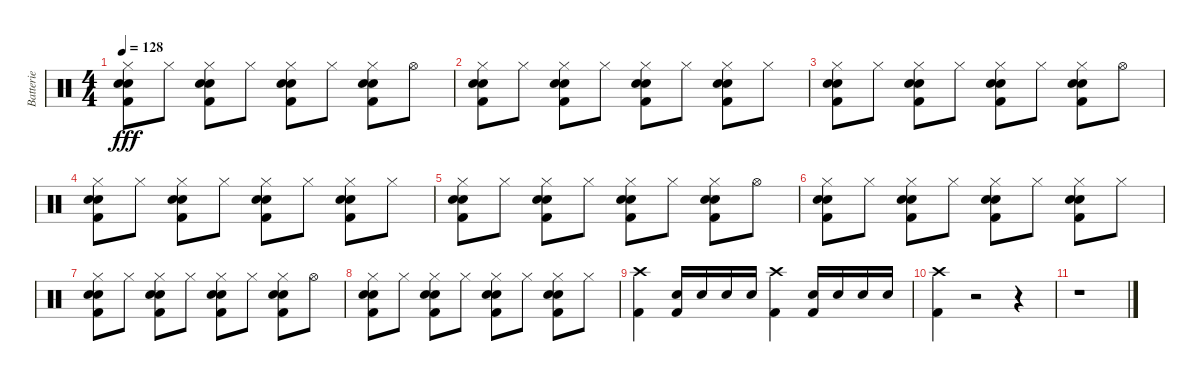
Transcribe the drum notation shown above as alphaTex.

\track ("Batterie" "Batterie") {instrument percussion}
\staff {score}
\articulation defaults
\ts (4 4)
\tempo 128
\clef neutral
\ks c
("Snare (hit) 2" "Kick (hit) 2" "Hi-Hat (closed)" "Electric Snare (hit)").8{dy fff} "Hi-Hat (closed)".8 ("Snare (hit) 2" "Kick (hit) 2" "Hi-Hat (closed)" "Electric Snare (hit)").8 "Hi-Hat (closed)".8 ("Kick (hit) 2" "Snare (hit) 2" "Hi-Hat (closed)" "Electric Snare (hit)").8 "Hi-Hat (closed)".8 ("Kick (hit) 2" "Snare (hit) 2" "Hi-Hat (closed)" "Electric Snare (hit)").8 "Hi-Hat (open)".8 |
("Snare (hit) 2" "Kick (hit) 2" "Hi-Hat (closed)" "Electric Snare (hit)").8 "Hi-Hat (closed)".8 ("Kick (hit) 2" "Snare (hit) 2" "Hi-Hat (closed)" "Electric Snare (hit)").8 "Hi-Hat (closed)".8 ("Snare (hit) 2" "Kick (hit) 2" "Hi-Hat (closed)" "Electric Snare (hit)").8 "Hi-Hat (closed)".8 ("Snare (hit) 2" "Kick (hit) 2" "Hi-Hat (closed)" "Electric Snare (hit)").8 "Hi-Hat (closed)".8 |
("Snare (hit) 2" "Kick (hit) 2" "Hi-Hat (closed)" "Electric Snare (hit)").8 "Hi-Hat (closed)".8 ("Snare (hit) 2" "Kick (hit) 2" "Hi-Hat (closed)" "Electric Snare (hit)").8 "Hi-Hat (closed)".8 ("Kick (hit) 2" "Snare (hit) 2" "Hi-Hat (closed)" "Electric Snare (hit)").8 "Hi-Hat (closed)".8 ("Kick (hit) 2" "Snare (hit) 2" "Hi-Hat (closed)" "Electric Snare (hit)").8 "Hi-Hat (open)".8 |
("Snare (hit) 2" "Kick (hit) 2" "Hi-Hat (closed)" "Electric Snare (hit)").8 "Hi-Hat (closed)".8 ("Kick (hit) 2" "Snare (hit) 2" "Hi-Hat (closed)" "Electric Snare (hit)").8 "Hi-Hat (closed)".8 ("Snare (hit) 2" "Kick (hit) 2" "Hi-Hat (closed)" "Electric Snare (hit)").8 "Hi-Hat (closed)".8 ("Snare (hit) 2" "Kick (hit) 2" "Hi-Hat (closed)" "Electric Snare (hit)").8 "Hi-Hat (closed)".8 |
("Snare (hit) 2" "Kick (hit) 2" "Hi-Hat (closed)" "Electric Snare (hit)").8 "Hi-Hat (closed)".8 ("Snare (hit) 2" "Kick (hit) 2" "Hi-Hat (closed)" "Electric Snare (hit)").8 "Hi-Hat (closed)".8 ("Kick (hit) 2" "Snare (hit) 2" "Hi-Hat (closed)" "Electric Snare (hit)").8 "Hi-Hat (closed)".8 ("Kick (hit) 2" "Snare (hit) 2" "Hi-Hat (closed)" "Electric Snare (hit)").8 "Hi-Hat (open)".8 |
("Snare (hit) 2" "Kick (hit) 2" "Hi-Hat (closed)" "Electric Snare (hit)").8 "Hi-Hat (closed)".8 ("Kick (hit) 2" "Snare (hit) 2" "Hi-Hat (closed)" "Electric Snare (hit)").8 "Hi-Hat (closed)".8 ("Snare (hit) 2" "Kick (hit) 2" "Hi-Hat (closed)" "Electric Snare (hit)").8 "Hi-Hat (closed)".8 ("Snare (hit) 2" "Kick (hit) 2" "Hi-Hat (closed)" "Electric Snare (hit)").8 "Hi-Hat (closed)".8 |
("Snare (hit) 2" "Kick (hit) 2" "Hi-Hat (closed)" "Electric Snare (hit)").8 "Hi-Hat (closed)".8 ("Snare (hit) 2" "Kick (hit) 2" "Hi-Hat (closed)" "Electric Snare (hit)").8 "Hi-Hat (closed)".8 ("Kick (hit) 2" "Snare (hit) 2" "Hi-Hat (closed)" "Electric Snare (hit)").8 "Hi-Hat (closed)".8 ("Kick (hit) 2" "Snare (hit) 2" "Hi-Hat (closed)" "Electric Snare (hit)").8 "Hi-Hat (open)".8 |
("Snare (hit) 2" "Kick (hit) 2" "Hi-Hat (closed)" "Electric Snare (hit)").8 "Hi-Hat (closed)".8 ("Kick (hit) 2" "Snare (hit) 2" "Hi-Hat (closed)" "Electric Snare (hit)").8 "Hi-Hat (closed)".8 ("Snare (hit) 2" "Kick (hit) 2" "Hi-Hat (closed)" "Electric Snare (hit)").8 "Hi-Hat (closed)".8 ("Snare (hit) 2" "Kick (hit) 2" "Hi-Hat (closed)" "Electric Snare (hit)").8 "Hi-Hat (closed)".8 |
("Crash high (hit)" "Kick (hit) 2").4 ("Snare (hit) 2" "Kick (hit) 2").16 "Snare (hit) 2".16 "Snare (hit) 2".16 "Snare (hit) 2".16 ("Crash high (hit)" "Kick (hit) 2").4 ("Snare (hit) 2" "Kick (hit) 2").16 "Snare (hit) 2".16 "Snare (hit) 2".16 "Snare (hit) 2".16 |
("Kick (hit) 2" "Crash high (hit)").4 r.2 r.4 |
r.1
